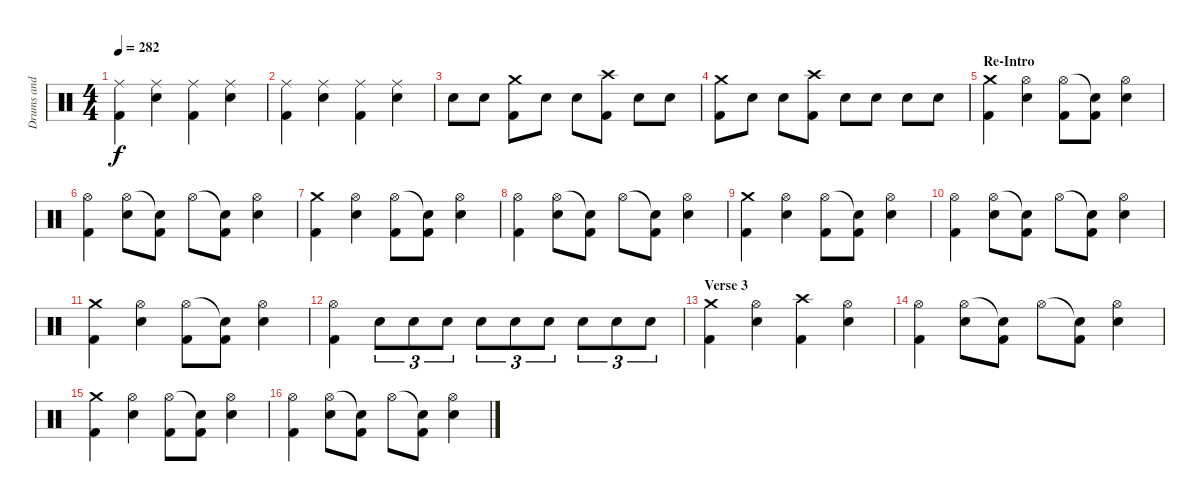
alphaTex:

\track ("Drums and Percussion" "Drums and ") {instrument percussion}
\staff {score}
\articulation defaults
\ts (4 4)
\tempo 282
\clef neutral
\ks c
("Ride (middle)" "Kick (hit) 2").4{dy f} ("Ride (middle)" "Snare (hit) 2").4 ("Ride (middle)" "Kick (hit) 2").4 ("Ride (middle)" "Snare (hit) 2").4 |
("Ride (middle)" "Kick (hit) 2").4 ("Ride (middle)" "Snare (hit) 2").4 ("Ride (middle)" "Kick (hit) 2").4 ("Ride (middle)" "Snare (hit) 2").4 |
"Snare (hit) 2".8 "Snare (hit) 2".8 ("Crash medium (hit)" "Kick (hit) 2").8 "Snare (hit) 2".8 "Snare (hit) 2".8 ("Crash high (hit)" "Kick (hit) 2").8 "Snare (hit) 2".8 "Snare (hit) 2".8 |
("Crash medium (hit)" "Kick (hit) 2").8 "Snare (hit) 2".8 "Snare (hit) 2".8 ("Crash high (hit)" "Kick (hit) 2").8 "Snare (hit) 2".8 "Snare (hit) 2".8 "Snare (hit) 2".8 "Snare (hit) 2".8 |
\section ("" "Re-Intro")
("Crash medium (hit)" "Kick (hit) 2").4 ("Hi-Hat (open)" "Snare (hit) 2").4 ("Hi-Hat (open)" "Kick (hit) 2").8 ("Snare (hit)"{t} "Kick (hit) 2").8 ("Hi-Hat (open)" "Snare (hit) 2").4 |
("Hi-Hat (open)" "Kick (hit) 2").4 ("Hi-Hat (open)" "Snare (hit) 2").8 ("Snare (hit)"{t} "Kick (hit) 2").8 "Hi-Hat (open)".8 ("Snare (hit)"{t} "Kick (hit) 2").8 ("Hi-Hat (open)" "Snare (hit) 2").4 |
("Crash medium (hit)" "Kick (hit) 2").4 ("Hi-Hat (open)" "Snare (hit) 2").4 ("Hi-Hat (open)" "Kick (hit) 2").8 ("Snare (hit)"{t} "Kick (hit) 2").8 ("Hi-Hat (open)" "Snare (hit) 2").4 |
("Hi-Hat (open)" "Kick (hit) 2").4 ("Hi-Hat (open)" "Snare (hit) 2").8 ("Snare (hit)"{t} "Kick (hit) 2").8 "Hi-Hat (open)".8 ("Snare (hit)"{t} "Kick (hit) 2").8 ("Hi-Hat (open)" "Snare (hit) 2").4 |
("Crash medium (hit)" "Kick (hit) 2").4 ("Hi-Hat (open)" "Snare (hit) 2").4 ("Hi-Hat (open)" "Kick (hit) 2").8 ("Snare (hit)"{t} "Kick (hit) 2").8 ("Hi-Hat (open)" "Snare (hit) 2").4 |
("Hi-Hat (open)" "Kick (hit) 2").4 ("Hi-Hat (open)" "Snare (hit) 2").8 ("Snare (hit)"{t} "Kick (hit) 2").8 "Hi-Hat (open)".8 ("Snare (hit)"{t} "Kick (hit) 2").8 ("Hi-Hat (open)" "Snare (hit) 2").4 |
("Crash medium (hit)" "Kick (hit) 2").4 ("Hi-Hat (open)" "Snare (hit) 2").4 ("Hi-Hat (open)" "Kick (hit) 2").8 ("Snare (hit)"{t} "Kick (hit) 2").8 ("Hi-Hat (open)" "Snare (hit) 2").4 |
("Hi-Hat (open)" "Kick (hit) 2").4 "Snare (hit) 2".8{tu (3 2)} "Snare (hit) 2".8{tu (3 2)} "Snare (hit) 2".8{tu (3 2)} "Snare (hit) 2".8{tu (3 2)} "Snare (hit) 2".8{tu (3 2)} "Snare (hit) 2".8{tu (3 2)} "Snare (hit) 2".8{tu (3 2)} "Snare (hit) 2".8{tu (3 2)} "Snare (hit) 2".8{tu (3 2)} |
\section ("" "Verse 3")
("Crash medium (hit)" "Kick (hit) 2").4 ("Hi-Hat (open)" "Snare (hit) 2").4 ("Crash high (hit)" "Kick (hit) 2").4 ("Hi-Hat (open)" "Snare (hit) 2").4 |
("Hi-Hat (open)" "Kick (hit) 2").4 ("Hi-Hat (open)" "Snare (hit) 2").8 ("Snare (hit)"{t} "Kick (hit) 2").8 "Hi-Hat (open)".8 ("Snare (hit)"{t} "Kick (hit) 2").8 ("Hi-Hat (open)" "Snare (hit) 2").4 |
("Crash medium (hit)" "Kick (hit) 2").4 ("Hi-Hat (open)" "Snare (hit) 2").4 ("Hi-Hat (open)" "Kick (hit) 2").8 ("Snare (hit)"{t} "Kick (hit) 2").8 ("Hi-Hat (open)" "Snare (hit) 2").4 |
("Hi-Hat (open)" "Kick (hit) 2").4 ("Hi-Hat (open)" "Snare (hit) 2").8 ("Snare (hit)"{t} "Kick (hit) 2").8 "Hi-Hat (open)".8 ("Snare (hit)"{t} "Kick (hit) 2").8 ("Hi-Hat (open)" "Snare (hit) 2").4
